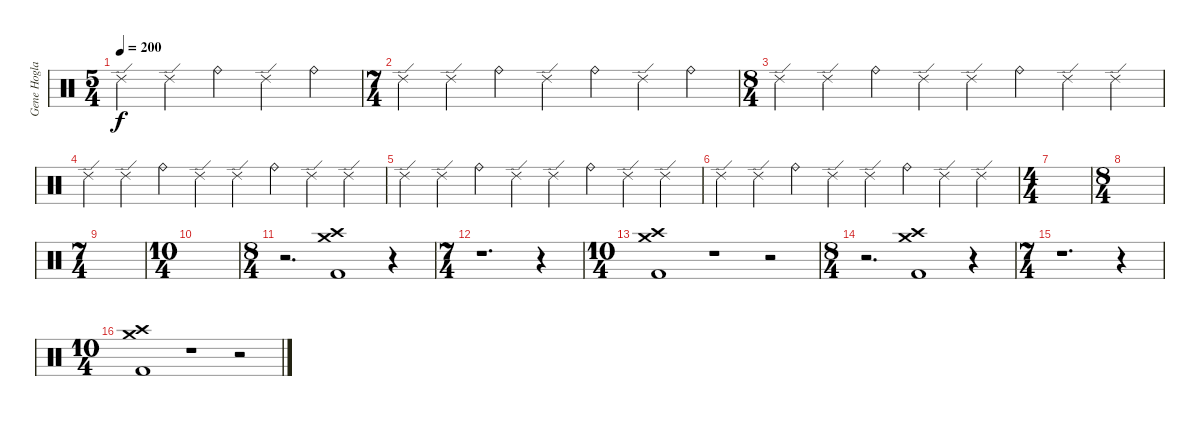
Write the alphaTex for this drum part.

\track ("Gene Hoglan" "Gene Hogla") {instrument percussion}
\staff {score}
\articulation defaults
\ts (5 4)
\tempo 200
\clef neutral
\ks c "Ride (edge) 2".4{dy f} "Ride (edge) 2".4 "Ride (bell)".4 "Ride (edge) 2".4 "Ride (bell)".4
|
\ts (7 4)
"Ride (edge) 2".4 "Ride (edge) 2".4 "Ride (bell)".4 "Ride (edge) 2".4 "Ride (bell)".4 "Ride (edge) 2".4 "Ride (bell)".4 |
\ts (8 4)
"Ride (edge) 2".4 "Ride (edge) 2".4 "Ride (bell)".4 "Ride (edge) 2".4 "Ride (edge) 2".4 "Ride (bell)".4 "Ride (edge) 2".4 "Ride (edge) 2".4 |
"Ride (edge) 2".4 "Ride (edge) 2".4 "Ride (bell)".4 "Ride (edge) 2".4 "Ride (edge) 2".4 "Ride (bell)".4 "Ride (edge) 2".4 "Ride (edge) 2".4 |
"Ride (edge) 2".4 "Ride (edge) 2".4 "Ride (bell)".4 "Ride (edge) 2".4 "Ride (edge) 2".4 "Ride (bell)".4 "Ride (edge) 2".4 "Ride (edge) 2".4 |
"Ride (edge) 2".4 "Ride (edge) 2".4 "Ride (bell)".4 "Ride (edge) 2".4 "Ride (edge) 2".4 "Ride (bell)".4 "Ride (edge) 2".4 "Ride (edge) 2".4 |
\ts (4 4)
|
\ts (8 4)
|
\ts (7 4)
|
\ts (10 4)
|
\ts (8 4)
r.2{d} ("Kick (hit) 2" "Crash medium (hit)" "Crash high (hit)").1 r.4 |
\ts (7 4)
r.1{d} r.4 |
\ts (10 4)
("Kick (hit) 2" "Crash medium (hit)" "Crash high (hit)").1 r.1 r.2 |
\ts (8 4)
r.2{d} ("Kick (hit) 2" "Crash medium (hit)" "Crash high (hit)").1 r.4 |
\ts (7 4)
r.1{d} r.4 |
\ts (10 4)
("Kick (hit) 2" "Crash medium (hit)" "Crash high (hit)").1 r.1 r.2
